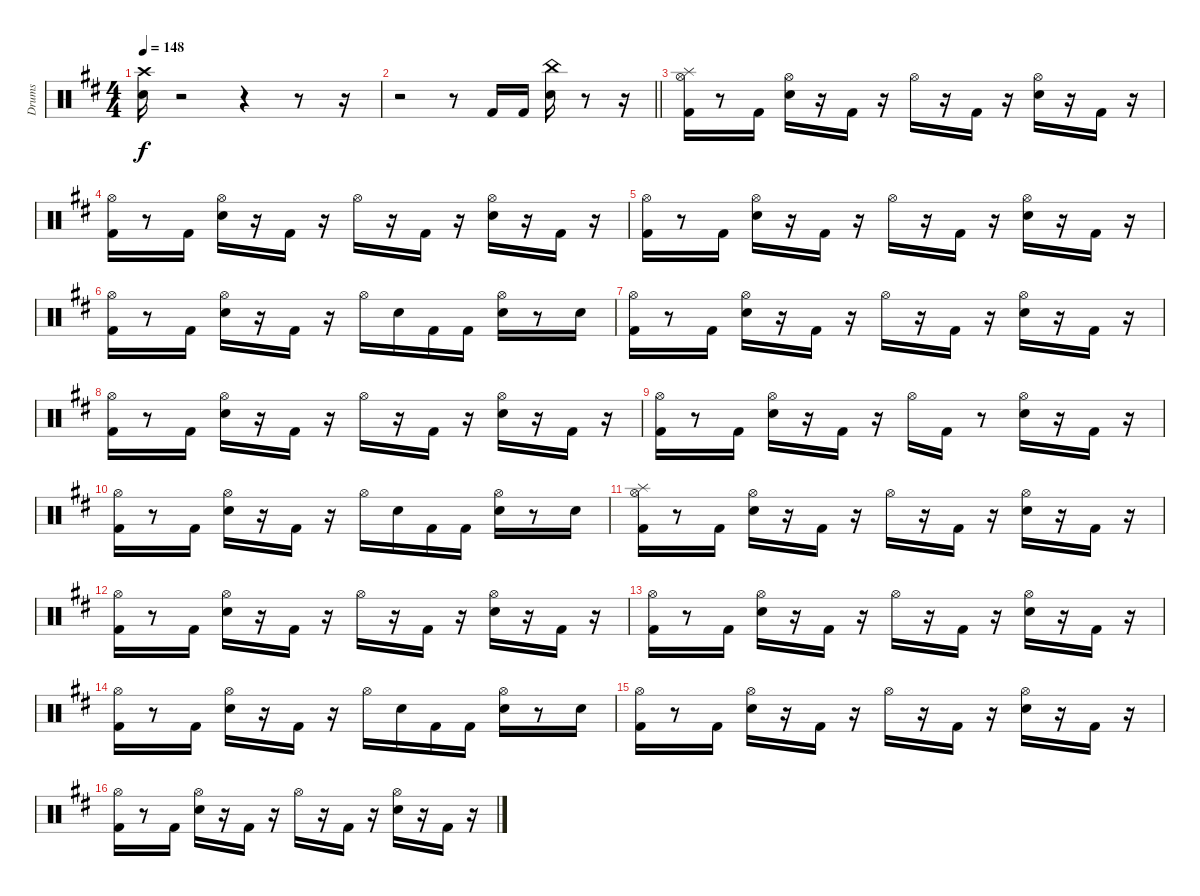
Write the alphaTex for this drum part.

\track ("Drums" "Drums") {instrument percussion}
\staff {score}
\articulation defaults
\ts (4 4)
\tempo 148
\clef neutral
\ks d
("Crash high (hit)" "Snare (hit) 2").16{dy f} r.2 r.4 r.8 r.16 |
\barLineRight lightlight
r.2 r.8 "Kick (hit) 2".16 "Kick (hit) 2".16 ("China (hit)" "Snare (hit) 2").16 r.8 r.16 |
("Hi-Hat (open)" "Splash (hit)" "Kick (hit) 2").16 r.8 "Kick (hit) 2".16 ("Hi-Hat (open)" "Snare (hit) 2").16 r.16 "Kick (hit) 2".16 r.16 "Hi-Hat (open)".16 r.16 "Kick (hit) 2".16 r.16 ("Hi-Hat (open)" "Snare (hit) 2").16 r.16 "Kick (hit) 2".16 r.16 |
("Hi-Hat (open)" "Kick (hit) 2").16 r.8 "Kick (hit) 2".16 ("Hi-Hat (open)" "Snare (hit) 2").16 r.16 "Kick (hit) 2".16 r.16 "Hi-Hat (open)".16 r.16 "Kick (hit) 2".16 r.16 ("Hi-Hat (open)" "Snare (hit) 2").16 r.16 "Kick (hit) 2".16 r.16 |
("Hi-Hat (open)" "Kick (hit) 2").16 r.8 "Kick (hit) 2".16 ("Hi-Hat (open)" "Snare (hit) 2").16 r.16 "Kick (hit) 2".16 r.16 "Hi-Hat (open)".16 r.16 "Kick (hit) 2".16 r.16 ("Hi-Hat (open)" "Snare (hit) 2").16 r.16 "Kick (hit) 2".16 r.16 |
("Hi-Hat (open)" "Kick (hit) 2").16 r.8 "Kick (hit) 2".16 ("Hi-Hat (open)" "Snare (hit) 2").16 r.16 "Kick (hit) 2".16 r.16 "Hi-Hat (open)".16 "Snare (hit) 2".16 "Kick (hit) 2".16 "Kick (hit) 2".16 ("Hi-Hat (open)" "Snare (hit) 2").16 r.8 "Snare (hit) 2".16 |
("Hi-Hat (open)" "Kick (hit) 2").16 r.8 "Kick (hit) 2".16 ("Hi-Hat (open)" "Snare (hit) 2").16 r.16 "Kick (hit) 2".16 r.16 "Hi-Hat (open)".16 r.16 "Kick (hit) 2".16 r.16 ("Hi-Hat (open)" "Snare (hit) 2").16 r.16 "Kick (hit) 2".16 r.16 |
("Hi-Hat (open)" "Kick (hit) 2").16 r.8 "Kick (hit) 2".16 ("Hi-Hat (open)" "Snare (hit) 2").16 r.16 "Kick (hit) 2".16 r.16 "Hi-Hat (open)".16 r.16 "Kick (hit) 2".16 r.16 ("Hi-Hat (open)" "Snare (hit) 2").16 r.16 "Kick (hit) 2".16 r.16 |
("Hi-Hat (open)" "Kick (hit) 2").16 r.8 "Kick (hit) 2".16 ("Hi-Hat (open)" "Snare (hit) 2").16 r.16 "Kick (hit) 2".16 r.16 "Hi-Hat (open)".16 "Kick (hit) 2".16 r.8 ("Hi-Hat (open)" "Snare (hit) 2").16 r.16 "Kick (hit) 2".16 r.16 |
("Hi-Hat (open)" "Kick (hit) 2").16 r.8 "Kick (hit) 2".16 ("Hi-Hat (open)" "Snare (hit) 2").16 r.16 "Kick (hit) 2".16 r.16 "Hi-Hat (open)".16 "Snare (hit) 2".16 "Kick (hit) 2".16 "Kick (hit) 2".16 ("Hi-Hat (open)" "Snare (hit) 2").16 r.8 "Snare (hit) 2".16 |
("Splash (hit)" "Hi-Hat (open)" "Kick (hit) 2").16 r.8 "Kick (hit) 2".16 ("Hi-Hat (open)" "Snare (hit) 2").16 r.16 "Kick (hit) 2".16 r.16 "Hi-Hat (open)".16 r.16 "Kick (hit) 2".16 r.16 ("Hi-Hat (open)" "Snare (hit) 2").16 r.16 "Kick (hit) 2".16 r.16 |
("Hi-Hat (open)" "Kick (hit) 2").16 r.8 "Kick (hit) 2".16 ("Hi-Hat (open)" "Snare (hit) 2").16 r.16 "Kick (hit) 2".16 r.16 "Hi-Hat (open)".16 r.16 "Kick (hit) 2".16 r.16 ("Hi-Hat (open)" "Snare (hit) 2").16 r.16 "Kick (hit) 2".16 r.16 |
("Hi-Hat (open)" "Kick (hit) 2").16 r.8 "Kick (hit) 2".16 ("Hi-Hat (open)" "Snare (hit) 2").16 r.16 "Kick (hit) 2".16 r.16 "Hi-Hat (open)".16 r.16 "Kick (hit) 2".16 r.16 ("Hi-Hat (open)" "Snare (hit) 2").16 r.16 "Kick (hit) 2".16 r.16 |
("Hi-Hat (open)" "Kick (hit) 2").16 r.8 "Kick (hit) 2".16 ("Hi-Hat (open)" "Snare (hit) 2").16 r.16 "Kick (hit) 2".16 r.16 "Hi-Hat (open)".16 "Snare (hit) 2".16 "Kick (hit) 2".16 "Kick (hit) 2".16 ("Hi-Hat (open)" "Snare (hit) 2").16 r.8 "Snare (hit) 2".16 |
("Hi-Hat (open)" "Kick (hit) 2").16 r.8 "Kick (hit) 2".16 ("Hi-Hat (open)" "Snare (hit) 2").16 r.16 "Kick (hit) 2".16 r.16 "Hi-Hat (open)".16 r.16 "Kick (hit) 2".16 r.16 ("Hi-Hat (open)" "Snare (hit) 2").16 r.16 "Kick (hit) 2".16 r.16 |
("Hi-Hat (open)" "Kick (hit) 2").16 r.8 "Kick (hit) 2".16 ("Hi-Hat (open)" "Snare (hit) 2").16 r.16 "Kick (hit) 2".16 r.16 "Hi-Hat (open)".16 r.16 "Kick (hit) 2".16 r.16 ("Hi-Hat (open)" "Snare (hit) 2").16 r.16 "Kick (hit) 2".16 r.16
